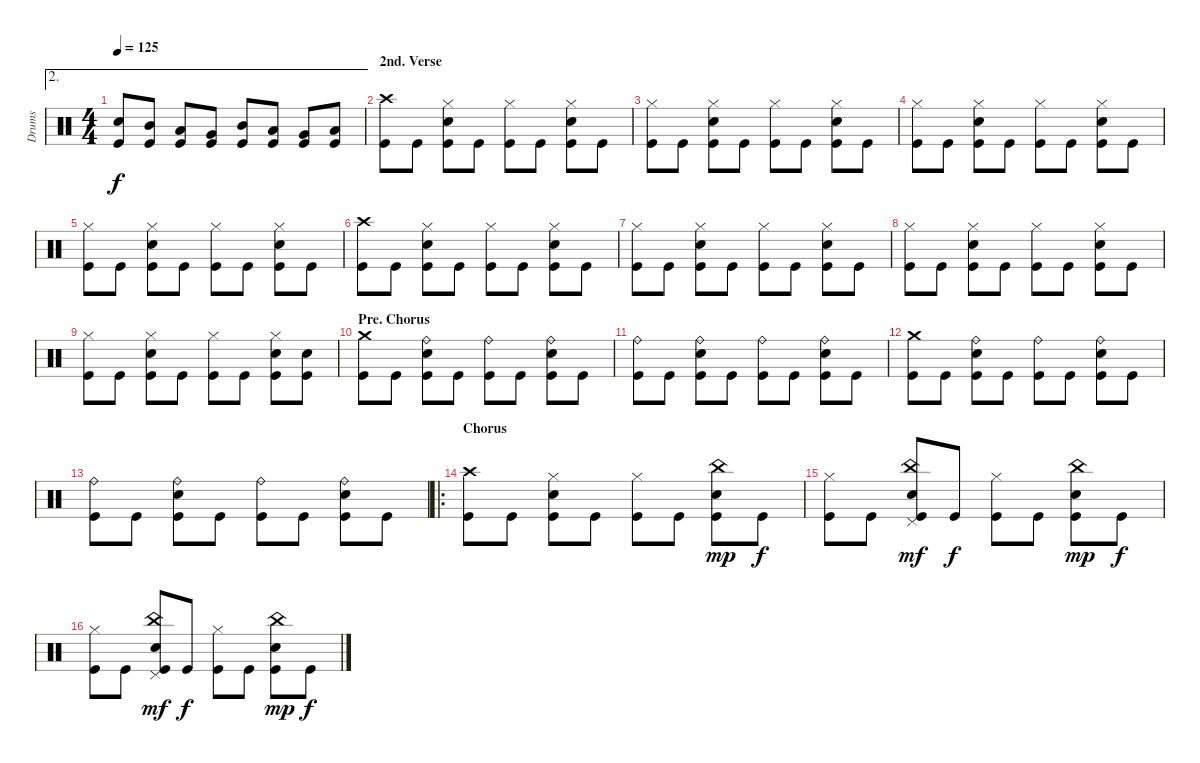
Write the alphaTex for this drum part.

\track ("Drums" "Drums") {instrument percussion}
\staff {score}
\articulation defaults
\ae 2
\ts (4 4)
\tempo 125
\clef neutral
\ks c
("Snare (hit) 2" "Kick (hit)").8{dy f} ("Mid Tom (hit)" "Kick (hit)").8 ("Low Tom (hit)" "Kick (hit)").8 ("Very Low Tom (hit)" "Kick (hit)").8 ("Mid Tom (hit)" "Kick (hit)").8 ("Low Tom (hit)" "Kick (hit)").8 ("Very Low Tom (hit)" "Kick (hit)").8 ("Low Floor Tom (hit)" "Kick (hit)").8 |
\section ("" "2nd. Verse")
("Crash high (hit)" "Kick (hit)").8 "Kick (hit)".8 ("Hi-Hat (closed)" "Snare (hit) 2" "Kick (hit)").8 "Kick (hit)".8 ("Hi-Hat (closed)" "Kick (hit)").8 "Kick (hit)".8 ("Hi-Hat (closed)" "Snare (hit) 2" "Kick (hit)").8 "Kick (hit)".8 |
("Hi-Hat (closed)" "Kick (hit)").8 "Kick (hit)".8 ("Hi-Hat (closed)" "Snare (hit) 2" "Kick (hit)").8 "Kick (hit)".8 ("Hi-Hat (closed)" "Kick (hit)").8 "Kick (hit)".8 ("Hi-Hat (closed)" "Snare (hit) 2" "Kick (hit)").8 "Kick (hit)".8 |
("Hi-Hat (closed)" "Kick (hit)").8 "Kick (hit)".8 ("Hi-Hat (closed)" "Snare (hit) 2" "Kick (hit)").8 "Kick (hit)".8 ("Hi-Hat (closed)" "Kick (hit)").8 "Kick (hit)".8 ("Hi-Hat (closed)" "Snare (hit) 2" "Kick (hit)").8 "Kick (hit)".8 |
("Hi-Hat (closed)" "Kick (hit)").8 "Kick (hit)".8 ("Hi-Hat (closed)" "Snare (hit) 2" "Kick (hit)").8 "Kick (hit)".8 ("Hi-Hat (closed)" "Kick (hit)").8 "Kick (hit)".8 ("Hi-Hat (closed)" "Snare (hit) 2" "Kick (hit)").8 "Kick (hit)".8 |
("Crash high (hit)" "Kick (hit)").8 "Kick (hit)".8 ("Hi-Hat (closed)" "Snare (hit) 2" "Kick (hit)").8 "Kick (hit)".8 ("Hi-Hat (closed)" "Kick (hit)").8 "Kick (hit)".8 ("Hi-Hat (closed)" "Snare (hit) 2" "Kick (hit)").8 "Kick (hit)".8 |
("Hi-Hat (closed)" "Kick (hit)").8 "Kick (hit)".8 ("Hi-Hat (closed)" "Snare (hit) 2" "Kick (hit)").8 "Kick (hit)".8 ("Hi-Hat (closed)" "Kick (hit)").8 "Kick (hit)".8 ("Hi-Hat (closed)" "Snare (hit) 2" "Kick (hit)").8 "Kick (hit)".8 |
("Hi-Hat (closed)" "Kick (hit)").8 "Kick (hit)".8 ("Hi-Hat (closed)" "Snare (hit) 2" "Kick (hit)").8 "Kick (hit)".8 ("Hi-Hat (closed)" "Kick (hit)").8 "Kick (hit)".8 ("Hi-Hat (closed)" "Snare (hit) 2" "Kick (hit)").8 "Kick (hit)".8 |
("Hi-Hat (closed)" "Kick (hit)").8 "Kick (hit)".8 ("Hi-Hat (closed)" "Snare (hit) 2" "Kick (hit)").8 "Kick (hit)".8 ("Hi-Hat (closed)" "Kick (hit)").8 "Kick (hit)".8 ("Hi-Hat (closed)" "Snare (hit) 2" "Kick (hit)").8 ("Snare (hit) 2" "Kick (hit)").8 |
\section ("" "Pre. Chorus")
("Crash medium (hit)" "Kick (hit)").8 "Kick (hit)".8 ("Ride (bell)" "Snare (hit) 2" "Kick (hit)").8 "Kick (hit)".8 ("Ride (bell)" "Kick (hit)").8 "Kick (hit)".8 ("Ride (bell)" "Snare (hit) 2" "Kick (hit)").8 "Kick (hit)".8 |
("Ride (bell)" "Kick (hit)").8 "Kick (hit)".8 ("Ride (bell)" "Snare (hit) 2" "Kick (hit)").8 "Kick (hit)".8 ("Ride (bell)" "Kick (hit)").8 "Kick (hit)".8 ("Ride (bell)" "Snare (hit) 2" "Kick (hit)").8 "Kick (hit)".8 |
("Crash medium (hit)" "Kick (hit)").8 "Kick (hit)".8 ("Ride (bell)" "Snare (hit) 2" "Kick (hit)").8 "Kick (hit)".8 ("Ride (bell)" "Kick (hit)").8 "Kick (hit)".8 ("Ride (bell)" "Snare (hit) 2" "Kick (hit)").8 "Kick (hit)".8 |
("Ride (bell)" "Kick (hit)").8 "Kick (hit)".8 ("Ride (bell)" "Snare (hit) 2" "Kick (hit)").8 "Kick (hit)".8 ("Ride (bell)" "Kick (hit)").8 "Kick (hit)".8 ("Ride (bell)" "Snare (hit) 2" "Kick (hit)").8 "Kick (hit)".8 |
\ro
\section ("" "Chorus")
("Crash high (hit)" "Kick (hit)").8 "Kick (hit)".8 ("Hi-Hat (closed)" "Snare (hit) 2" "Kick (hit)").8 "Kick (hit)".8 ("Hi-Hat (closed)" "Kick (hit)").8 "Kick (hit)".8 ("China (hit)" "Snare (hit) 2" "Kick (hit)").8{dy mp} "Kick (hit)".8{dy f} |
("Hi-Hat (closed)" "Kick (hit)").8 "Kick (hit)".8 ("China (hit)" "Pedal Hi-Hat (hit)" "Snare (hit) 2" "Kick (hit)").8{dy mf} "Kick (hit)".8{dy f} ("Hi-Hat (closed)" "Kick (hit)").8 "Kick (hit)".8 ("China (hit)" "Snare (hit) 2" "Kick (hit)").8{dy mp} "Kick (hit)".8{dy f} |
("Hi-Hat (closed)" "Kick (hit)").8 "Kick (hit)".8 ("China (hit)" "Pedal Hi-Hat (hit)" "Snare (hit) 2" "Kick (hit)").8{dy mf} "Kick (hit)".8{dy f} ("Hi-Hat (closed)" "Kick (hit)").8 "Kick (hit)".8 ("China (hit)" "Snare (hit) 2" "Kick (hit)").8{dy mp} "Kick (hit)".8{dy f}
